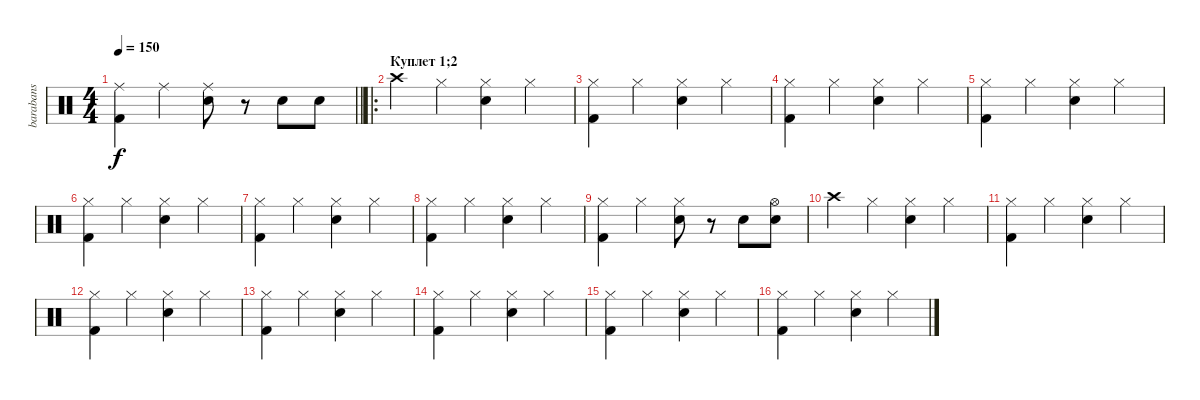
\track ("barabans" "barabans") {instrument percussion}
\staff {score}
\articulation defaults
\ts (4 4)
\tempo 150
\clef neutral
\barLineRight lightlight
\ks c
("Ride (middle)" "Kick (hit) 2").4{dy f} "Ride (middle)".4 ("Ride (middle)" "Snare (hit) 2").8 r.8 "Snare (hit) 2".8 "Snare (hit) 2".8 |
\ro
\section ("" "Куплет 1;2")
"Crash high (hit)".4 "Hi-Hat (closed)".4 ("Hi-Hat (closed)" "Snare (hit) 2").4 "Hi-Hat (closed)".4 |
("Hi-Hat (closed)" "Kick (hit) 2").4 "Hi-Hat (closed)".4 ("Hi-Hat (closed)" "Snare (hit) 2").4 "Hi-Hat (closed)".4 |
("Hi-Hat (closed)" "Kick (hit) 2").4 "Hi-Hat (closed)".4 ("Hi-Hat (closed)" "Snare (hit) 2").4 "Hi-Hat (closed)".4 |
("Hi-Hat (closed)" "Kick (hit) 2").4 "Hi-Hat (closed)".4 ("Hi-Hat (closed)" "Snare (hit) 2").4 "Hi-Hat (closed)".4 |
("Hi-Hat (closed)" "Kick (hit) 2").4 "Hi-Hat (closed)".4 ("Hi-Hat (closed)" "Snare (hit) 2").4 "Hi-Hat (closed)".4 |
("Hi-Hat (closed)" "Kick (hit) 2").4 "Hi-Hat (closed)".4 ("Hi-Hat (closed)" "Snare (hit) 2").4 "Hi-Hat (closed)".4 |
("Hi-Hat (closed)" "Kick (hit) 2").4 "Hi-Hat (closed)".4 ("Hi-Hat (closed)" "Snare (hit) 2").4 "Hi-Hat (closed)".4 |
("Hi-Hat (closed)" "Kick (hit) 2").4 "Hi-Hat (closed)".4 ("Hi-Hat (closed)" "Snare (hit) 2").8 r.8 "Snare (hit) 2".8 ("Hi-Hat (open)" "Snare (hit) 2").8 |
"Crash high (hit)".4 "Hi-Hat (closed)".4 ("Hi-Hat (closed)" "Snare (hit) 2").4 "Hi-Hat (closed)".4 |
("Hi-Hat (closed)" "Kick (hit) 2").4 "Hi-Hat (closed)".4 ("Hi-Hat (closed)" "Snare (hit) 2").4 "Hi-Hat (closed)".4 |
("Hi-Hat (closed)" "Kick (hit) 2").4 "Hi-Hat (closed)".4 ("Hi-Hat (closed)" "Snare (hit) 2").4 "Hi-Hat (closed)".4 |
("Hi-Hat (closed)" "Kick (hit) 2").4 "Hi-Hat (closed)".4 ("Hi-Hat (closed)" "Snare (hit) 2").4 "Hi-Hat (closed)".4 |
("Hi-Hat (closed)" "Kick (hit) 2").4 "Hi-Hat (closed)".4 ("Hi-Hat (closed)" "Snare (hit) 2").4 "Hi-Hat (closed)".4 |
("Hi-Hat (closed)" "Kick (hit) 2").4 "Hi-Hat (closed)".4 ("Hi-Hat (closed)" "Snare (hit) 2").4 "Hi-Hat (closed)".4 |
("Hi-Hat (closed)" "Kick (hit) 2").4 "Hi-Hat (closed)".4 ("Hi-Hat (closed)" "Snare (hit) 2").4 "Hi-Hat (closed)".4
